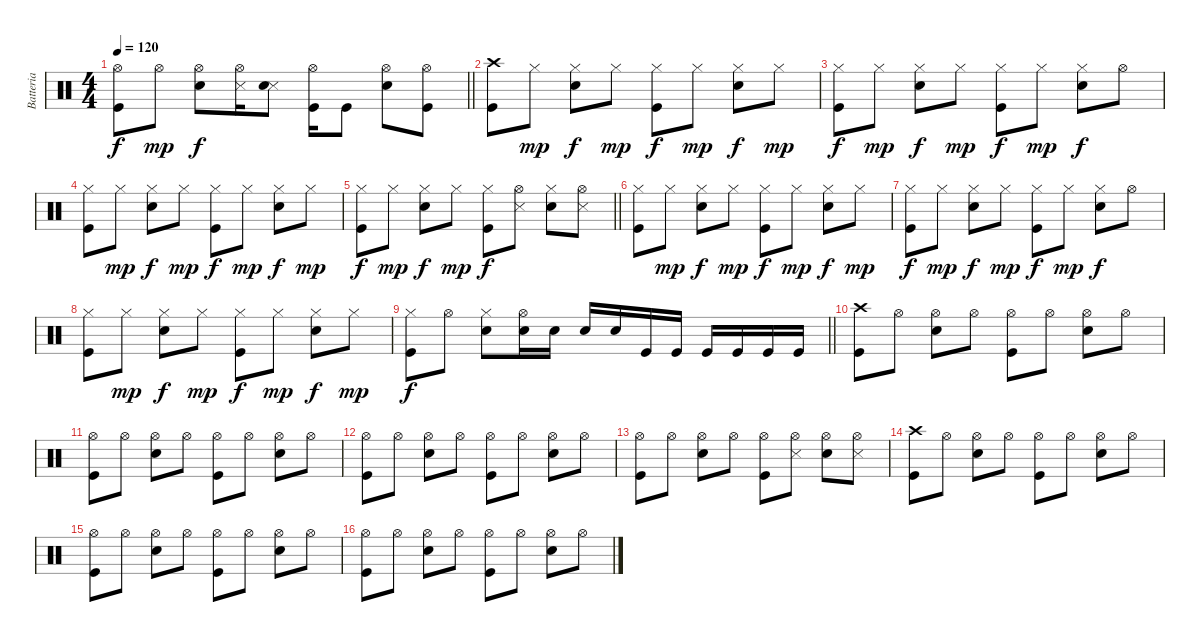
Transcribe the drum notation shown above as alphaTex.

\track ("Batteria" "Batteria") {instrument percussion}
\staff {score}
\articulation defaults
\ts (4 4)
\tempo 120
\clef neutral
\barLineRight lightlight
\ks c
("Kick (hit)" "Hi-Hat (open)").8{dy f} "Hi-Hat (open)".8{dy mp} ("Snare (hit) 2" "Hi-Hat (open)").8{dy f} ("Snare (side stick) 3" "Hi-Hat (open)").16 ("Snare (side stick) 3" "Snare (hit) 2").8 ("Kick (hit)" "Hi-Hat (open)").16 "Kick (hit)".8 ("Snare (hit) 2" "Hi-Hat (open)").8 ("Kick (hit)" "Hi-Hat (open)").8 |
("Kick (hit)" "Crash high (hit)").8 "Hi-Hat (closed)".8{dy mp} ("Snare (hit) 2" "Hi-Hat (closed)").8{dy f} "Hi-Hat (closed)".8{dy mp} ("Kick (hit)" "Hi-Hat (closed)").8{dy f} "Hi-Hat (closed)".8{dy mp} ("Snare (hit) 2" "Hi-Hat (closed)").8{dy f} "Hi-Hat (closed)".8{dy mp} |
("Kick (hit)" "Hi-Hat (closed)").8{dy f} "Hi-Hat (closed)".8{dy mp} ("Snare (hit) 2" "Hi-Hat (closed)").8{dy f} "Hi-Hat (closed)".8{dy mp} ("Kick (hit)" "Hi-Hat (closed)").8{dy f} "Hi-Hat (closed)".8{dy mp} ("Snare (hit) 2" "Hi-Hat (closed)").8{dy f} "Hi-Hat (open)".8 |
("Kick (hit)" "Hi-Hat (closed)").8 "Hi-Hat (closed)".8{dy mp} ("Snare (hit) 2" "Hi-Hat (closed)").8{dy f} "Hi-Hat (closed)".8{dy mp} ("Kick (hit)" "Hi-Hat (closed)").8{dy f} "Hi-Hat (closed)".8{dy mp} ("Snare (hit) 2" "Hi-Hat (closed)").8{dy f} "Hi-Hat (closed)".8{dy mp} |
\barLineRight lightlight
("Kick (hit)" "Hi-Hat (closed)").8{dy f} "Hi-Hat (closed)".8{dy mp} ("Snare (hit) 2" "Hi-Hat (closed)").8{dy f} "Hi-Hat (closed)".8{dy mp} ("Kick (hit)" "Hi-Hat (closed)").8{dy f} ("Hi-Hat (open)" "Snare (side stick) 3").8 ("Snare (hit) 2" "Hi-Hat (closed)").8 ("Hi-Hat (open)" "Snare (side stick) 3").8 |
("Kick (hit)" "Hi-Hat (closed)").8 "Hi-Hat (closed)".8{dy mp} ("Snare (hit) 2" "Hi-Hat (closed)").8{dy f} "Hi-Hat (closed)".8{dy mp} ("Kick (hit)" "Hi-Hat (closed)").8{dy f} "Hi-Hat (closed)".8{dy mp} ("Snare (hit) 2" "Hi-Hat (closed)").8{dy f} "Hi-Hat (closed)".8{dy mp} |
("Kick (hit)" "Hi-Hat (closed)").8{dy f} "Hi-Hat (closed)".8{dy mp} ("Snare (hit) 2" "Hi-Hat (closed)").8{dy f} "Hi-Hat (closed)".8{dy mp} ("Kick (hit)" "Hi-Hat (closed)").8{dy f} "Hi-Hat (closed)".8{dy mp} ("Snare (hit) 2" "Hi-Hat (closed)").8{dy f} "Hi-Hat (open)".8 |
("Kick (hit)" "Hi-Hat (closed)").8 "Hi-Hat (closed)".8{dy mp} ("Snare (hit) 2" "Hi-Hat (closed)").8{dy f} "Hi-Hat (closed)".8{dy mp} ("Kick (hit)" "Hi-Hat (closed)").8{dy f} "Hi-Hat (closed)".8{dy mp} ("Snare (hit) 2" "Hi-Hat (closed)").8{dy f} "Hi-Hat (closed)".8{dy mp} |
\barLineRight lightlight
("Kick (hit)" "Hi-Hat (closed)").8{dy f} "Hi-Hat (open)".8 ("Snare (hit) 2" "Hi-Hat (closed)").8 ("Snare (hit) 2" "Hi-Hat (open)").16 "Snare (hit) 2".16 "Snare (hit) 2".16 "Snare (hit) 2".16 "Kick (hit)".16 "Kick (hit)".16 "Kick (hit)".16 "Kick (hit)".16 "Kick (hit)".16 "Kick (hit)".16 |
("Kick (hit)" "Crash high (hit)").8 "Hi-Hat (open)".8 ("Snare (hit) 2" "Hi-Hat (open)").8 "Hi-Hat (open)".8 ("Kick (hit)" "Hi-Hat (open)").8 "Hi-Hat (open)".8 ("Snare (hit) 2" "Hi-Hat (open)").8 "Hi-Hat (open)".8 |
("Kick (hit)" "Hi-Hat (open)").8 "Hi-Hat (open)".8 ("Snare (hit) 2" "Hi-Hat (open)").8 "Hi-Hat (open)".8 ("Kick (hit)" "Hi-Hat (open)").8 "Hi-Hat (open)".8 ("Snare (hit) 2" "Hi-Hat (open)").8 "Hi-Hat (open)".8 |
("Kick (hit)" "Hi-Hat (open)").8 "Hi-Hat (open)".8 ("Snare (hit) 2" "Hi-Hat (open)").8 "Hi-Hat (open)".8 ("Kick (hit)" "Hi-Hat (open)").8 "Hi-Hat (open)".8 ("Snare (hit) 2" "Hi-Hat (open)").8 "Hi-Hat (open)".8 |
("Kick (hit)" "Hi-Hat (open)").8 "Hi-Hat (open)".8 ("Snare (hit) 2" "Hi-Hat (open)").8 "Hi-Hat (open)".8 ("Kick (hit)" "Hi-Hat (open)").8 ("Hi-Hat (open)" "Snare (side stick) 3").8 ("Snare (hit) 2" "Hi-Hat (open)").8 ("Hi-Hat (open)" "Snare (side stick) 3").8 |
("Kick (hit)" "Crash high (hit)").8 "Hi-Hat (open)".8 ("Snare (hit) 2" "Hi-Hat (open)").8 "Hi-Hat (open)".8 ("Kick (hit)" "Hi-Hat (open)").8 "Hi-Hat (open)".8 ("Snare (hit) 2" "Hi-Hat (open)").8 "Hi-Hat (open)".8 |
("Kick (hit)" "Hi-Hat (open)").8 "Hi-Hat (open)".8 ("Snare (hit) 2" "Hi-Hat (open)").8 "Hi-Hat (open)".8 ("Kick (hit)" "Hi-Hat (open)").8 "Hi-Hat (open)".8 ("Snare (hit) 2" "Hi-Hat (open)").8 "Hi-Hat (open)".8 |
("Kick (hit)" "Hi-Hat (open)").8 "Hi-Hat (open)".8 ("Snare (hit) 2" "Hi-Hat (open)").8 "Hi-Hat (open)".8 ("Kick (hit)" "Hi-Hat (open)").8 "Hi-Hat (open)".8 ("Snare (hit) 2" "Hi-Hat (open)").8 "Hi-Hat (open)".8
